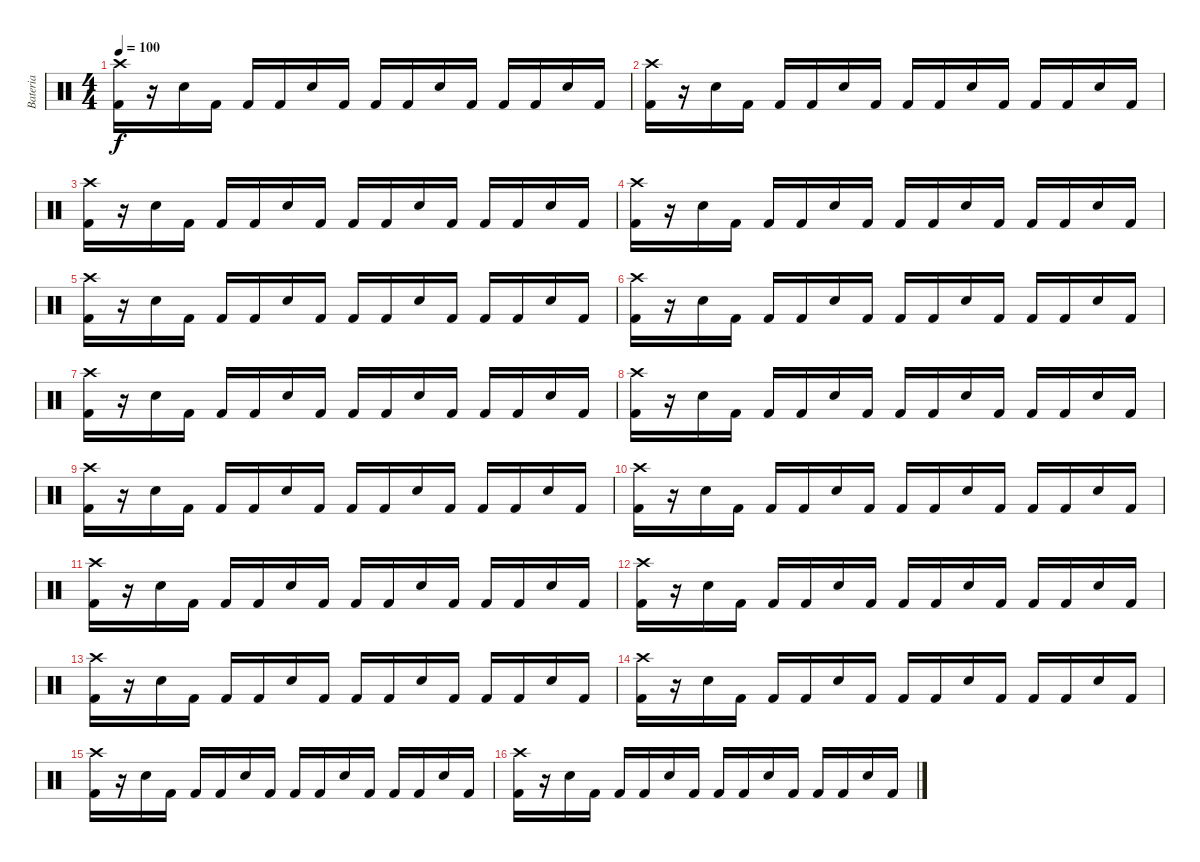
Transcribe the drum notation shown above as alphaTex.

\track ("Bateria" "Bateria") {instrument percussion}
\staff {score}
\articulation defaults
\ts (4 4)
\tempo 100
\clef neutral
\ks c
("Crash high (hit)" "Kick (hit) 2").16{dy f} r.16 "Snare (hit) 2".16 "Kick (hit) 2".16 "Kick (hit) 2".16 "Kick (hit) 2".16 "Snare (hit) 2".16 "Kick (hit) 2".16 "Kick (hit) 2".16 "Kick (hit) 2".16 "Snare (hit) 2".16 "Kick (hit) 2".16 "Kick (hit) 2".16 "Kick (hit) 2".16 "Snare (hit) 2".16 "Kick (hit) 2".16 |
("Crash high (hit)" "Kick (hit) 2").16 r.16 "Snare (hit) 2".16 "Kick (hit) 2".16 "Kick (hit) 2".16 "Kick (hit) 2".16 "Snare (hit) 2".16 "Kick (hit) 2".16 "Kick (hit) 2".16 "Kick (hit) 2".16 "Snare (hit) 2".16 "Kick (hit) 2".16 "Kick (hit) 2".16 "Kick (hit) 2".16 "Snare (hit) 2".16 "Kick (hit) 2".16 |
("Crash high (hit)" "Kick (hit) 2").16 r.16 "Snare (hit) 2".16 "Kick (hit) 2".16 "Kick (hit) 2".16 "Kick (hit) 2".16 "Snare (hit) 2".16 "Kick (hit) 2".16 "Kick (hit) 2".16 "Kick (hit) 2".16 "Snare (hit) 2".16 "Kick (hit) 2".16 "Kick (hit) 2".16 "Kick (hit) 2".16 "Snare (hit) 2".16 "Kick (hit) 2".16 |
("Crash high (hit)" "Kick (hit) 2").16 r.16 "Snare (hit) 2".16 "Kick (hit) 2".16 "Kick (hit) 2".16 "Kick (hit) 2".16 "Snare (hit) 2".16 "Kick (hit) 2".16 "Kick (hit) 2".16 "Kick (hit) 2".16 "Snare (hit) 2".16 "Kick (hit) 2".16 "Kick (hit) 2".16 "Kick (hit) 2".16 "Snare (hit) 2".16 "Kick (hit) 2".16 |
("Crash high (hit)" "Kick (hit) 2").16 r.16 "Snare (hit) 2".16 "Kick (hit) 2".16 "Kick (hit) 2".16 "Kick (hit) 2".16 "Snare (hit) 2".16 "Kick (hit) 2".16 "Kick (hit) 2".16 "Kick (hit) 2".16 "Snare (hit) 2".16 "Kick (hit) 2".16 "Kick (hit) 2".16 "Kick (hit) 2".16 "Snare (hit) 2".16 "Kick (hit) 2".16 |
("Crash high (hit)" "Kick (hit) 2").16 r.16 "Snare (hit) 2".16 "Kick (hit) 2".16 "Kick (hit) 2".16 "Kick (hit) 2".16 "Snare (hit) 2".16 "Kick (hit) 2".16 "Kick (hit) 2".16 "Kick (hit) 2".16 "Snare (hit) 2".16 "Kick (hit) 2".16 "Kick (hit) 2".16 "Kick (hit) 2".16 "Snare (hit) 2".16 "Kick (hit) 2".16 |
("Crash high (hit)" "Kick (hit) 2").16 r.16 "Snare (hit) 2".16 "Kick (hit) 2".16 "Kick (hit) 2".16 "Kick (hit) 2".16 "Snare (hit) 2".16 "Kick (hit) 2".16 "Kick (hit) 2".16 "Kick (hit) 2".16 "Snare (hit) 2".16 "Kick (hit) 2".16 "Kick (hit) 2".16 "Kick (hit) 2".16 "Snare (hit) 2".16 "Kick (hit) 2".16 |
("Crash high (hit)" "Kick (hit) 2").16 r.16 "Snare (hit) 2".16 "Kick (hit) 2".16 "Kick (hit) 2".16 "Kick (hit) 2".16 "Snare (hit) 2".16 "Kick (hit) 2".16 "Kick (hit) 2".16 "Kick (hit) 2".16 "Snare (hit) 2".16 "Kick (hit) 2".16 "Kick (hit) 2".16 "Kick (hit) 2".16 "Snare (hit) 2".16 "Kick (hit) 2".16 |
("Crash high (hit)" "Kick (hit) 2").16 r.16 "Snare (hit) 2".16 "Kick (hit) 2".16 "Kick (hit) 2".16 "Kick (hit) 2".16 "Snare (hit) 2".16 "Kick (hit) 2".16 "Kick (hit) 2".16 "Kick (hit) 2".16 "Snare (hit) 2".16 "Kick (hit) 2".16 "Kick (hit) 2".16 "Kick (hit) 2".16 "Snare (hit) 2".16 "Kick (hit) 2".16 |
("Crash high (hit)" "Kick (hit) 2").16 r.16 "Snare (hit) 2".16 "Kick (hit) 2".16 "Kick (hit) 2".16 "Kick (hit) 2".16 "Snare (hit) 2".16 "Kick (hit) 2".16 "Kick (hit) 2".16 "Kick (hit) 2".16 "Snare (hit) 2".16 "Kick (hit) 2".16 "Kick (hit) 2".16 "Kick (hit) 2".16 "Snare (hit) 2".16 "Kick (hit) 2".16 |
("Crash high (hit)" "Kick (hit) 2").16 r.16 "Snare (hit) 2".16 "Kick (hit) 2".16 "Kick (hit) 2".16 "Kick (hit) 2".16 "Snare (hit) 2".16 "Kick (hit) 2".16 "Kick (hit) 2".16 "Kick (hit) 2".16 "Snare (hit) 2".16 "Kick (hit) 2".16 "Kick (hit) 2".16 "Kick (hit) 2".16 "Snare (hit) 2".16 "Kick (hit) 2".16 |
("Crash high (hit)" "Kick (hit) 2").16 r.16 "Snare (hit) 2".16 "Kick (hit) 2".16 "Kick (hit) 2".16 "Kick (hit) 2".16 "Snare (hit) 2".16 "Kick (hit) 2".16 "Kick (hit) 2".16 "Kick (hit) 2".16 "Snare (hit) 2".16 "Kick (hit) 2".16 "Kick (hit) 2".16 "Kick (hit) 2".16 "Snare (hit) 2".16 "Kick (hit) 2".16 |
("Crash high (hit)" "Kick (hit) 2").16 r.16 "Snare (hit) 2".16 "Kick (hit) 2".16 "Kick (hit) 2".16 "Kick (hit) 2".16 "Snare (hit) 2".16 "Kick (hit) 2".16 "Kick (hit) 2".16 "Kick (hit) 2".16 "Snare (hit) 2".16 "Kick (hit) 2".16 "Kick (hit) 2".16 "Kick (hit) 2".16 "Snare (hit) 2".16 "Kick (hit) 2".16 |
("Crash high (hit)" "Kick (hit) 2").16 r.16 "Snare (hit) 2".16 "Kick (hit) 2".16 "Kick (hit) 2".16 "Kick (hit) 2".16 "Snare (hit) 2".16 "Kick (hit) 2".16 "Kick (hit) 2".16 "Kick (hit) 2".16 "Snare (hit) 2".16 "Kick (hit) 2".16 "Kick (hit) 2".16 "Kick (hit) 2".16 "Snare (hit) 2".16 "Kick (hit) 2".16 |
("Crash high (hit)" "Kick (hit) 2").16 r.16 "Snare (hit) 2".16 "Kick (hit) 2".16 "Kick (hit) 2".16 "Kick (hit) 2".16 "Snare (hit) 2".16 "Kick (hit) 2".16 "Kick (hit) 2".16 "Kick (hit) 2".16 "Snare (hit) 2".16 "Kick (hit) 2".16 "Kick (hit) 2".16 "Kick (hit) 2".16 "Snare (hit) 2".16 "Kick (hit) 2".16 |
("Crash high (hit)" "Kick (hit) 2").16 r.16 "Snare (hit) 2".16 "Kick (hit) 2".16 "Kick (hit) 2".16 "Kick (hit) 2".16 "Snare (hit) 2".16 "Kick (hit) 2".16 "Kick (hit) 2".16 "Kick (hit) 2".16 "Snare (hit) 2".16 "Kick (hit) 2".16 "Kick (hit) 2".16 "Kick (hit) 2".16 "Snare (hit) 2".16 "Kick (hit) 2".16
